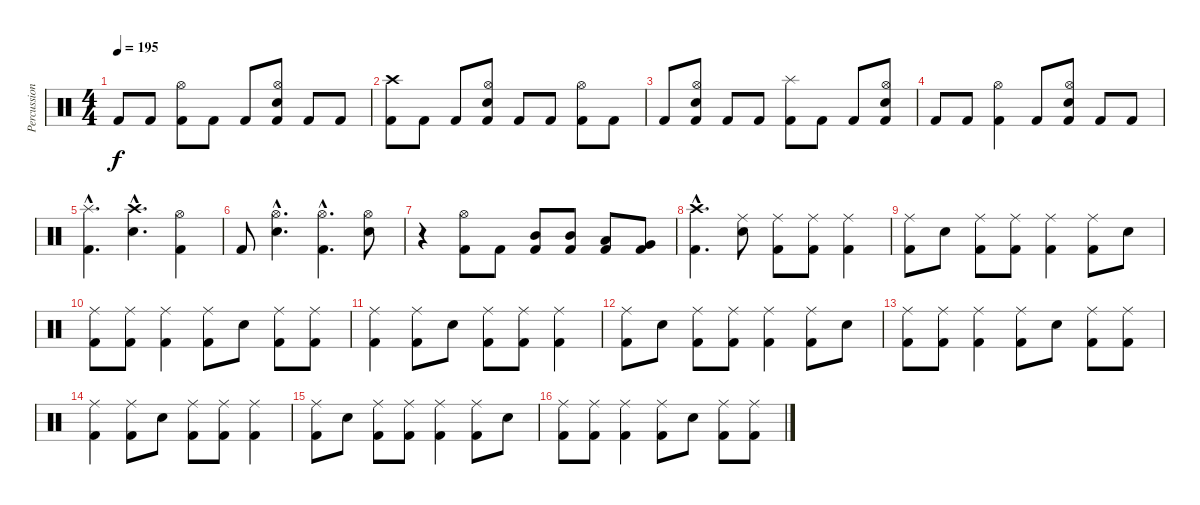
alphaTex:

\track ("Percussion" "Percussion") {instrument percussion}
\staff {score}
\articulation defaults
\ts (4 4)
\tempo 195
\clef neutral
\ks c "Kick (hit) 2".8{dy f} "Kick (hit) 2".8
("Hi-Hat (open)" "Kick (hit) 2").8 "Kick (hit) 2".8 "Kick (hit) 2".8 ("Hi-Hat (open)" "Snare (hit) 2" "Kick (hit) 2").8 "Kick (hit) 2".8 "Kick (hit) 2".8 |
("Crash high (hit)" "Kick (hit) 2").8 "Kick (hit) 2".8 "Kick (hit) 2".8 ("Hi-Hat (open)" "Snare (hit) 2" "Kick (hit) 2").8 "Kick (hit) 2".8 "Kick (hit) 2".8 ("Hi-Hat (open)" "Kick (hit) 2").8 "Kick (hit) 2".8 |
"Kick (hit) 2".8 ("Hi-Hat (open)" "Snare (hit) 2" "Kick (hit) 2").8 "Kick (hit) 2".8 "Kick (hit) 2".8 ("Splash (hit)" "Kick (hit) 2").8 "Kick (hit) 2".8 "Kick (hit) 2".8 ("Hi-Hat (open)" "Snare (hit) 2" "Kick (hit) 2").8 |
"Kick (hit) 2".8 "Kick (hit) 2".8 ("Hi-Hat (open)" "Kick (hit) 2").4 "Kick (hit) 2".8 ("Hi-Hat (open)" "Snare (hit) 2" "Kick (hit) 2").8 "Kick (hit) 2".8 "Kick (hit) 2".8 |
("Splash (hit)"{hac} "Kick (hit) 2"{hac}).4{d} ("Crash high (hit)"{hac} "Snare (hit) 2"{hac}).4{d} ("Hi-Hat (open)" "Kick (hit) 2").4 |
"Kick (hit) 2".8 ("Hi-Hat (open)"{hac} "Snare (hit) 2"{hac}).4{d} ("Hi-Hat (open)"{hac} "Kick (hit) 2"{hac}).4{d} ("Hi-Hat (open)" "Snare (hit) 2").8 |
r.4 ("Hi-Hat (open)" "Kick (hit) 2").8 "Kick (hit) 2".8 ("Mid Tom (hit)" "Kick (hit) 2").8 ("Mid Tom (hit)" "Kick (hit) 2").8 ("Low Tom (hit)" "Kick (hit) 2").8 ("Very Low Tom (hit)" "Kick (hit) 2").8 |
("Crash high (hit)"{hac} "Kick (hit) 2"{hac}).4{d} ("Ride (middle)" "Snare (hit) 2").8 ("Ride (middle)" "Kick (hit) 2").8 ("Ride (middle)" "Kick (hit) 2").8 ("Ride (middle)" "Kick (hit) 2").4 |
("Ride (middle)" "Kick (hit) 2").8 "Snare (hit) 2".8 ("Ride (middle)" "Kick (hit) 2").8 ("Ride (middle)" "Kick (hit) 2").8 ("Ride (middle)" "Kick (hit) 2").4 ("Ride (middle)" "Kick (hit) 2").8 "Snare (hit) 2".8 |
("Ride (middle)" "Kick (hit) 2").8 ("Ride (middle)" "Kick (hit) 2").8 ("Ride (middle)" "Kick (hit) 2").4 ("Ride (middle)" "Kick (hit) 2").8 "Snare (hit) 2".8 ("Ride (middle)" "Kick (hit) 2").8 ("Ride (middle)" "Kick (hit) 2").8 |
("Ride (middle)" "Kick (hit) 2").4 ("Ride (middle)" "Kick (hit) 2").8 "Snare (hit) 2".8 ("Ride (middle)" "Kick (hit) 2").8 ("Ride (middle)" "Kick (hit) 2").8 ("Ride (middle)" "Kick (hit) 2").4 |
("Ride (middle)" "Kick (hit) 2").8 "Snare (hit) 2".8 ("Ride (middle)" "Kick (hit) 2").8 ("Ride (middle)" "Kick (hit) 2").8 ("Ride (middle)" "Kick (hit) 2").4 ("Ride (middle)" "Kick (hit) 2").8 "Snare (hit) 2".8 |
("Ride (middle)" "Kick (hit) 2").8 ("Ride (middle)" "Kick (hit) 2").8 ("Ride (middle)" "Kick (hit) 2").4 ("Ride (middle)" "Kick (hit) 2").8 "Snare (hit) 2".8 ("Ride (middle)" "Kick (hit) 2").8 ("Ride (middle)" "Kick (hit) 2").8 |
("Ride (middle)" "Kick (hit) 2").4 ("Ride (middle)" "Kick (hit) 2").8 "Snare (hit) 2".8 ("Ride (middle)" "Kick (hit) 2").8 ("Ride (middle)" "Kick (hit) 2").8 ("Ride (middle)" "Kick (hit) 2").4 |
("Ride (middle)" "Kick (hit) 2").8 "Snare (hit) 2".8 ("Ride (middle)" "Kick (hit) 2").8 ("Ride (middle)" "Kick (hit) 2").8 ("Ride (middle)" "Kick (hit) 2").4 ("Ride (middle)" "Kick (hit) 2").8 "Snare (hit) 2".8 |
("Ride (middle)" "Kick (hit) 2").8 ("Ride (middle)" "Kick (hit) 2").8 ("Ride (middle)" "Kick (hit) 2").4 ("Ride (middle)" "Kick (hit) 2").8 "Snare (hit) 2".8 ("Ride (middle)" "Kick (hit) 2").8 ("Ride (middle)" "Kick (hit) 2").8
